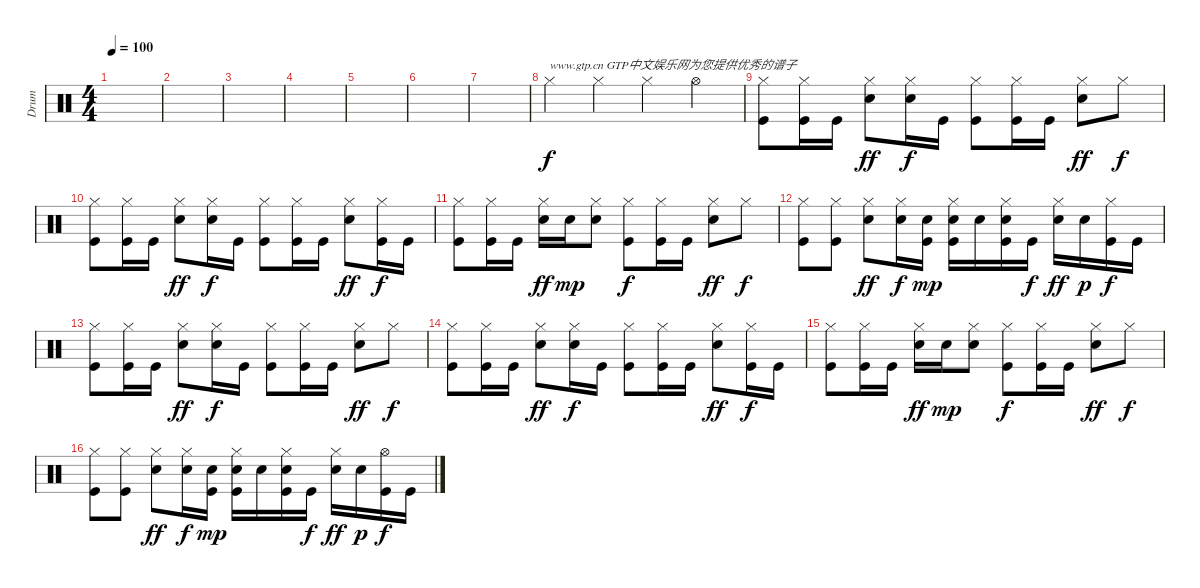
\track ("Drum" "Drum") {instrument percussion}
\staff {score}
\articulation defaults
\ts (4 4)
\tempo 100
\clef neutral
\ks c
|
|
|
|
|
|
|
"Hi-Hat (closed)".4{txt "www.gtp.cn GTP中文娱乐网为您提供优秀的谱子"} "Hi-Hat (closed)".4 "Hi-Hat (closed)".4 "Hi-Hat (open)".4 |
("Hi-Hat (closed)" "Kick (hit)").8{dy f} ("Hi-Hat (closed)" "Kick (hit)").16 "Kick (hit)".16 ("Hi-Hat (closed)" "Snare (hit) 2").8{dy ff} ("Hi-Hat (closed)" "Snare (hit) 2").16{dy f} "Kick (hit)".16 ("Hi-Hat (closed)" "Kick (hit)").8 ("Hi-Hat (closed)" "Kick (hit)").16 "Kick (hit)".16 ("Hi-Hat (closed)" "Snare (hit) 2").8{dy ff} "Hi-Hat (closed)".8{dy f} |
("Hi-Hat (closed)" "Kick (hit)").8 ("Hi-Hat (closed)" "Kick (hit)").16 "Kick (hit)".16 ("Hi-Hat (closed)" "Snare (hit) 2").8{dy ff} ("Hi-Hat (closed)" "Snare (hit) 2").16{dy f} "Kick (hit)".16 ("Hi-Hat (closed)" "Kick (hit)").8 ("Hi-Hat (closed)" "Kick (hit)").16 "Kick (hit)".16 ("Hi-Hat (closed)" "Snare (hit) 2").8{dy ff} ("Hi-Hat (closed)" "Kick (hit)").16{dy f} "Kick (hit)".16 |
("Hi-Hat (closed)" "Kick (hit)").8 ("Hi-Hat (closed)" "Kick (hit)").16 "Kick (hit)".16 ("Hi-Hat (closed)" "Snare (hit) 2").16{dy ff} "Snare (hit) 2".16{dy mp} ("Hi-Hat (closed)" "Snare (hit) 2").8 ("Hi-Hat (closed)" "Kick (hit)").8{dy f} ("Hi-Hat (closed)" "Kick (hit)").16 "Kick (hit)".16 ("Hi-Hat (closed)" "Snare (hit) 2").8{dy ff} "Hi-Hat (closed)".8{dy f} |
("Hi-Hat (closed)" "Kick (hit)").8 ("Hi-Hat (closed)" "Kick (hit)").8 ("Hi-Hat (closed)" "Snare (hit) 2").8{dy ff} ("Hi-Hat (closed)" "Snare (hit) 2").16{dy f} ("Snare (hit) 2" "Kick (hit)").16{dy mp} ("Hi-Hat (closed)" "Snare (hit) 2" "Kick (hit)").16 "Snare (hit) 2".16 ("Hi-Hat (closed)" "Snare (hit) 2" "Kick (hit)").16 "Kick (hit)".16{dy f} ("Hi-Hat (closed)" "Snare (hit) 2").16{dy ff} "Snare (hit) 2".16{dy p} ("Hi-Hat (closed)" "Kick (hit)").16{dy f} "Kick (hit)".16 |
("Hi-Hat (closed)" "Kick (hit)").8 ("Hi-Hat (closed)" "Kick (hit)").16 "Kick (hit)".16 ("Hi-Hat (closed)" "Snare (hit) 2").8{dy ff} ("Hi-Hat (closed)" "Snare (hit) 2").16{dy f} "Kick (hit)".16 ("Hi-Hat (closed)" "Kick (hit)").8 ("Hi-Hat (closed)" "Kick (hit)").16 "Kick (hit)".16 ("Hi-Hat (closed)" "Snare (hit) 2").8{dy ff} "Hi-Hat (closed)".8{dy f} |
("Hi-Hat (closed)" "Kick (hit)").8 ("Hi-Hat (closed)" "Kick (hit)").16 "Kick (hit)".16 ("Hi-Hat (closed)" "Snare (hit) 2").8{dy ff} ("Hi-Hat (closed)" "Snare (hit) 2").16{dy f} "Kick (hit)".16 ("Hi-Hat (closed)" "Kick (hit)").8 ("Hi-Hat (closed)" "Kick (hit)").16 "Kick (hit)".16 ("Hi-Hat (closed)" "Snare (hit) 2").8{dy ff} ("Hi-Hat (closed)" "Kick (hit)").16{dy f} "Kick (hit)".16 |
("Hi-Hat (closed)" "Kick (hit)").8 ("Hi-Hat (closed)" "Kick (hit)").16 "Kick (hit)".16 ("Hi-Hat (closed)" "Snare (hit) 2").16{dy ff} "Snare (hit) 2".16{dy mp} ("Hi-Hat (closed)" "Snare (hit) 2").8 ("Hi-Hat (closed)" "Kick (hit)").8{dy f} ("Hi-Hat (closed)" "Kick (hit)").16 "Kick (hit)".16 ("Hi-Hat (closed)" "Snare (hit) 2").8{dy ff} "Hi-Hat (closed)".8{dy f} |
("Hi-Hat (closed)" "Kick (hit)").8 ("Hi-Hat (closed)" "Kick (hit)").8 ("Hi-Hat (closed)" "Snare (hit) 2").8{dy ff} ("Hi-Hat (closed)" "Snare (hit) 2").16{dy f} ("Snare (hit) 2" "Kick (hit)").16{dy mp} ("Hi-Hat (closed)" "Snare (hit) 2" "Kick (hit)").16 "Snare (hit) 2".16 ("Hi-Hat (closed)" "Snare (hit) 2" "Kick (hit)").16 "Kick (hit)".16{dy f} ("Hi-Hat (closed)" "Snare (hit) 2").16{dy ff} "Snare (hit) 2".16{dy p} ("Hi-Hat (open)" "Kick (hit)").16{dy f} "Kick (hit)".16
